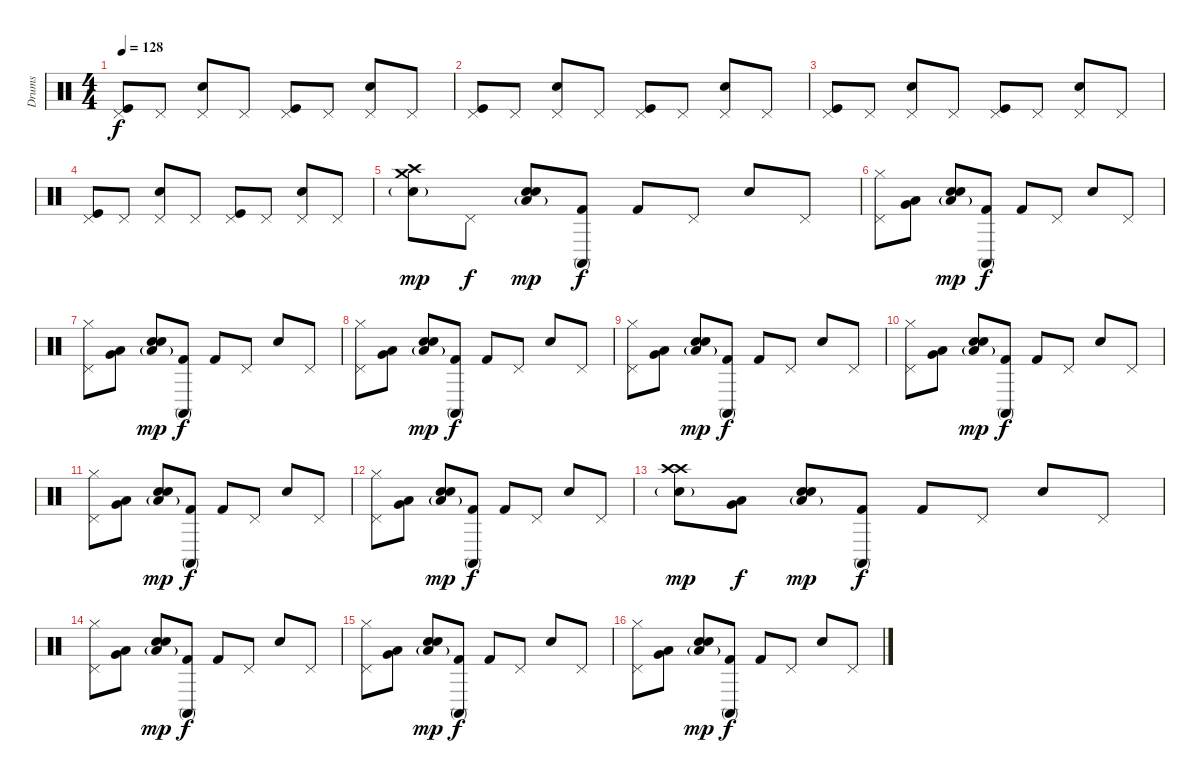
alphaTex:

\track ("Drums" "Drums") {instrument percussion}
\staff {score}
\articulation defaults
\ts (4 4)
\tempo 128
\clef neutral
\ks c
("Pedal Hi-Hat (hit)" "Kick (hit)").8{dy f} "Pedal Hi-Hat (hit)".8 ("Pedal Hi-Hat (hit)" "Electric Snare (hit)").8 "Pedal Hi-Hat (hit)".8 ("Pedal Hi-Hat (hit)" "Kick (hit)").8 "Pedal Hi-Hat (hit)".8 ("Pedal Hi-Hat (hit)" "Electric Snare (hit)").8 "Pedal Hi-Hat (hit)".8 |
("Pedal Hi-Hat (hit)" "Kick (hit)").8 "Pedal Hi-Hat (hit)".8 ("Pedal Hi-Hat (hit)" "Electric Snare (hit)").8 "Pedal Hi-Hat (hit)".8 ("Pedal Hi-Hat (hit)" "Kick (hit)").8 "Pedal Hi-Hat (hit)".8 ("Pedal Hi-Hat (hit)" "Electric Snare (hit)").8 "Pedal Hi-Hat (hit)".8 |
("Pedal Hi-Hat (hit)" "Kick (hit)").8 "Pedal Hi-Hat (hit)".8 ("Pedal Hi-Hat (hit)" "Electric Snare (hit)").8 "Pedal Hi-Hat (hit)".8 ("Pedal Hi-Hat (hit)" "Kick (hit)").8 "Pedal Hi-Hat (hit)".8 ("Pedal Hi-Hat (hit)" "Electric Snare (hit)").8 "Pedal Hi-Hat (hit)".8 |
("Pedal Hi-Hat (hit)" "Kick (hit)").8 "Pedal Hi-Hat (hit)".8 ("Pedal Hi-Hat (hit)" "Electric Snare (hit)").8 "Pedal Hi-Hat (hit)".8 ("Pedal Hi-Hat (hit)" "Kick (hit)").8 "Pedal Hi-Hat (hit)".8 ("Pedal Hi-Hat (hit)" "Electric Snare (hit)").8 "Pedal Hi-Hat (hit)".8 |
("Crash medium (hit)" "Crash high (hit)" "Electric Snare (hit)"{g}).8{dy mp} "Pedal Hi-Hat (hit)".8{dy f} ("Electric Snare (hit)" "Electric Snare (hit)" "Low Floor Tom (hit)"{g}).8{dy mp} ("Kick (hit) 2" "Conga high (mute)").8{dy f} "Kick (hit) 2".8 "Pedal Hi-Hat (hit)".8 "Electric Snare (hit)".8 "Pedal Hi-Hat (hit)".8 |
("Hi-Hat (closed)" "Pedal Hi-Hat (hit)").8 ("Very Low Tom (hit)" "Low Tom (hit)").8 ("Electric Snare (hit)" "Electric Snare (hit)" "Low Floor Tom (hit)"{g}).8{dy mp} ("Kick (hit) 2" "Conga high (mute)").8{dy f} "Kick (hit) 2".8 "Pedal Hi-Hat (hit)".8 "Electric Snare (hit)".8 "Pedal Hi-Hat (hit)".8 |
("Hi-Hat (closed)" "Pedal Hi-Hat (hit)").8 ("Very Low Tom (hit)" "Low Tom (hit)").8 ("Electric Snare (hit)" "Electric Snare (hit)" "Low Floor Tom (hit)"{g}).8{dy mp} ("Kick (hit) 2" "Conga high (mute)").8{dy f} "Kick (hit) 2".8 "Pedal Hi-Hat (hit)".8 "Electric Snare (hit)".8 "Pedal Hi-Hat (hit)".8 |
("Hi-Hat (closed)" "Pedal Hi-Hat (hit)").8 ("Very Low Tom (hit)" "Low Tom (hit)").8 ("Electric Snare (hit)" "Electric Snare (hit)" "Low Floor Tom (hit)"{g}).8{dy mp} ("Kick (hit) 2" "Conga high (mute)").8{dy f} "Kick (hit) 2".8 "Pedal Hi-Hat (hit)".8 "Electric Snare (hit)".8 "Pedal Hi-Hat (hit)".8 |
("Hi-Hat (closed)" "Pedal Hi-Hat (hit)").8 ("Very Low Tom (hit)" "Low Tom (hit)").8 ("Electric Snare (hit)" "Electric Snare (hit)" "Low Floor Tom (hit)"{g}).8{dy mp} ("Kick (hit) 2" "Conga high (mute)").8{dy f} "Kick (hit) 2".8 "Pedal Hi-Hat (hit)".8 "Electric Snare (hit)".8 "Pedal Hi-Hat (hit)".8 |
("Hi-Hat (closed)" "Pedal Hi-Hat (hit)").8 ("Very Low Tom (hit)" "Low Tom (hit)").8 ("Electric Snare (hit)" "Electric Snare (hit)" "Low Floor Tom (hit)"{g}).8{dy mp} ("Kick (hit) 2" "Conga high (mute)").8{dy f} "Kick (hit) 2".8 "Pedal Hi-Hat (hit)".8 "Electric Snare (hit)".8 "Pedal Hi-Hat (hit)".8 |
("Hi-Hat (closed)" "Pedal Hi-Hat (hit)").8 ("Very Low Tom (hit)" "Low Tom (hit)").8 ("Electric Snare (hit)" "Electric Snare (hit)" "Low Floor Tom (hit)"{g}).8{dy mp} ("Kick (hit) 2" "Conga high (mute)").8{dy f} "Kick (hit) 2".8 "Pedal Hi-Hat (hit)".8 "Electric Snare (hit)".8 "Pedal Hi-Hat (hit)".8 |
("Hi-Hat (closed)" "Pedal Hi-Hat (hit)").8 ("Very Low Tom (hit)" "Low Tom (hit)").8 ("Electric Snare (hit)" "Electric Snare (hit)" "Low Floor Tom (hit)"{g}).8{dy mp} ("Kick (hit) 2" "Conga high (mute)").8{dy f} "Kick (hit) 2".8 "Pedal Hi-Hat (hit)".8 "Electric Snare (hit)".8 "Pedal Hi-Hat (hit)".8 |
("Crash high (hit)" "Crash high (hit)" "Electric Snare (hit)"{g}).8{dy mp} ("Very Low Tom (hit)" "Low Tom (hit)").8{dy f} ("Electric Snare (hit)" "Electric Snare (hit)" "Low Floor Tom (hit)"{g}).8{dy mp} ("Kick (hit) 2" "Conga high (mute)").8{dy f} "Kick (hit) 2".8 "Pedal Hi-Hat (hit)".8 "Electric Snare (hit)".8 "Pedal Hi-Hat (hit)".8 |
("Hi-Hat (closed)" "Pedal Hi-Hat (hit)").8 ("Very Low Tom (hit)" "Low Tom (hit)").8 ("Electric Snare (hit)" "Electric Snare (hit)" "Low Floor Tom (hit)"{g}).8{dy mp} ("Kick (hit) 2" "Conga high (mute)").8{dy f} "Kick (hit) 2".8 "Pedal Hi-Hat (hit)".8 "Electric Snare (hit)".8 "Pedal Hi-Hat (hit)".8 |
("Hi-Hat (closed)" "Pedal Hi-Hat (hit)").8 ("Very Low Tom (hit)" "Low Tom (hit)").8 ("Electric Snare (hit)" "Electric Snare (hit)" "Low Floor Tom (hit)"{g}).8{dy mp} ("Kick (hit) 2" "Conga high (mute)").8{dy f} "Kick (hit) 2".8 "Pedal Hi-Hat (hit)".8 "Electric Snare (hit)".8 "Pedal Hi-Hat (hit)".8 |
("Hi-Hat (closed)" "Pedal Hi-Hat (hit)").8 ("Very Low Tom (hit)" "Low Tom (hit)").8 ("Electric Snare (hit)" "Electric Snare (hit)" "Low Floor Tom (hit)"{g}).8{dy mp} ("Kick (hit) 2" "Conga high (mute)").8{dy f} "Kick (hit) 2".8 "Pedal Hi-Hat (hit)".8 "Electric Snare (hit)".8 "Pedal Hi-Hat (hit)".8
